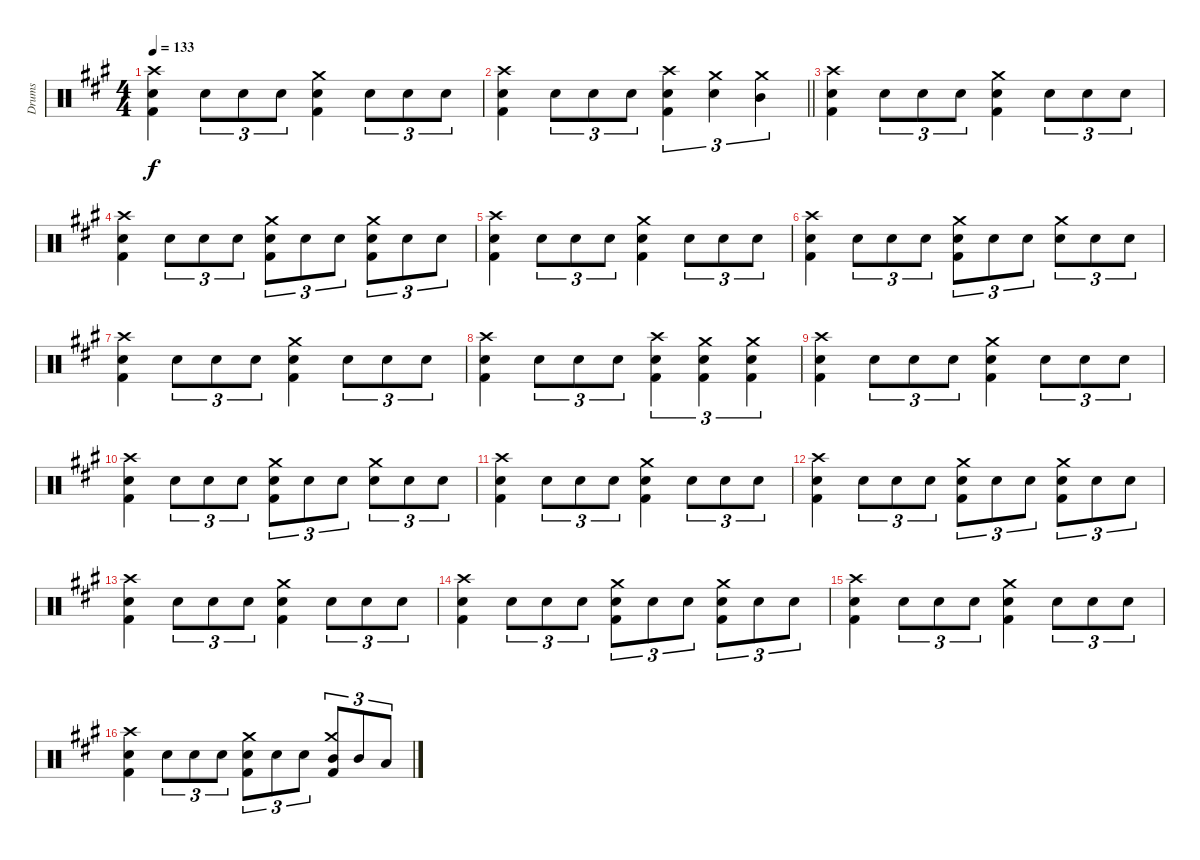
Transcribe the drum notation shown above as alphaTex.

\track ("Drums" "Drums") {instrument percussion}
\staff {score}
\articulation defaults
\ts (4 4)
\tempo 133
\clef neutral
\ks a
("Crash high (hit)" "Snare (hit) 2" "Kick (hit) 2").4{dy f} "Snare (hit) 2".8{tu (3 2)} "Snare (hit) 2".8{tu (3 2)} "Snare (hit) 2".8{tu (3 2)} ("Crash medium (hit)" "Snare (hit) 2" "Kick (hit) 2").4 "Snare (hit) 2".8{tu (3 2)} "Snare (hit) 2".8{tu (3 2)} "Snare (hit) 2".8{tu (3 2)} |
\barLineRight lightlight
("Crash high (hit)" "Snare (hit) 2" "Kick (hit) 2").4 "Snare (hit) 2".8{tu (3 2)} "Snare (hit) 2".8{tu (3 2)} "Snare (hit) 2".8{tu (3 2)} ("Crash high (hit)" "Snare (hit) 2" "Kick (hit) 2").4{tu (3 2)} ("Crash medium (hit)" "Snare (hit) 2").4{tu (3 2)} ("Crash medium (hit)" "Mid Tom (hit)").4{tu (3 2)} |
("Crash high (hit)" "Snare (hit) 2" "Kick (hit) 2").4 "Snare (hit) 2".8{tu (3 2)} "Snare (hit) 2".8{tu (3 2)} "Snare (hit) 2".8{tu (3 2)} ("Crash medium (hit)" "Snare (hit) 2" "Kick (hit) 2").4 "Snare (hit) 2".8{tu (3 2)} "Snare (hit) 2".8{tu (3 2)} "Snare (hit) 2".8{tu (3 2)} |
("Crash high (hit)" "Snare (hit) 2" "Kick (hit) 2").4 "Snare (hit) 2".8{tu (3 2)} "Snare (hit) 2".8{tu (3 2)} "Snare (hit) 2".8{tu (3 2)} ("Crash medium (hit)" "Snare (hit) 2" "Kick (hit) 2").8{tu (3 2)} "Snare (hit) 2".8{tu (3 2)} "Snare (hit) 2".8{tu (3 2)} ("Crash medium (hit)" "Snare (hit) 2" "Kick (hit) 2").8{tu (3 2)} "Snare (hit) 2".8{tu (3 2)} "Snare (hit) 2".8{tu (3 2)} |
("Crash high (hit)" "Snare (hit) 2" "Kick (hit) 2").4 "Snare (hit) 2".8{tu (3 2)} "Snare (hit) 2".8{tu (3 2)} "Snare (hit) 2".8{tu (3 2)} ("Crash medium (hit)" "Snare (hit) 2" "Kick (hit) 2").4 "Snare (hit) 2".8{tu (3 2)} "Snare (hit) 2".8{tu (3 2)} "Snare (hit) 2".8{tu (3 2)} |
("Crash high (hit)" "Snare (hit) 2" "Kick (hit) 2").4 "Snare (hit) 2".8{tu (3 2)} "Snare (hit) 2".8{tu (3 2)} "Snare (hit) 2".8{tu (3 2)} ("Crash medium (hit)" "Snare (hit) 2" "Kick (hit) 2").8{tu (3 2)} "Snare (hit) 2".8{tu (3 2)} "Snare (hit) 2".8{tu (3 2)} ("Crash medium (hit)" "Snare (hit) 2").8{tu (3 2)} "Snare (hit) 2".8{tu (3 2)} "Snare (hit) 2".8{tu (3 2)} |
("Crash high (hit)" "Snare (hit) 2" "Kick (hit) 2").4 "Snare (hit) 2".8{tu (3 2)} "Snare (hit) 2".8{tu (3 2)} "Snare (hit) 2".8{tu (3 2)} ("Crash medium (hit)" "Snare (hit) 2" "Kick (hit) 2").4 "Snare (hit) 2".8{tu (3 2)} "Snare (hit) 2".8{tu (3 2)} "Snare (hit) 2".8{tu (3 2)} |
("Crash high (hit)" "Snare (hit) 2" "Kick (hit) 2").4 "Snare (hit) 2".8{tu (3 2)} "Snare (hit) 2".8{tu (3 2)} "Snare (hit) 2".8{tu (3 2)} ("Crash high (hit)" "Snare (hit) 2" "Kick (hit) 2").4{tu (3 2)} ("Crash medium (hit)" "Snare (hit) 2" "Kick (hit) 2").4{tu (3 2)} ("Crash medium (hit)" "Snare (hit) 2" "Kick (hit) 2").4{tu (3 2)} |
("Crash high (hit)" "Snare (hit) 2" "Kick (hit) 2").4 "Snare (hit) 2".8{tu (3 2)} "Snare (hit) 2".8{tu (3 2)} "Snare (hit) 2".8{tu (3 2)} ("Crash medium (hit)" "Snare (hit) 2" "Kick (hit) 2").4 "Snare (hit) 2".8{tu (3 2)} "Snare (hit) 2".8{tu (3 2)} "Snare (hit) 2".8{tu (3 2)} |
("Crash high (hit)" "Snare (hit) 2" "Kick (hit) 2").4 "Snare (hit) 2".8{tu (3 2)} "Snare (hit) 2".8{tu (3 2)} "Snare (hit) 2".8{tu (3 2)} ("Crash medium (hit)" "Snare (hit) 2" "Kick (hit) 2").8{tu (3 2)} "Snare (hit) 2".8{tu (3 2)} "Snare (hit) 2".8{tu (3 2)} ("Crash medium (hit)" "Snare (hit) 2").8{tu (3 2)} "Snare (hit) 2".8{tu (3 2)} "Snare (hit) 2".8{tu (3 2)} |
("Crash high (hit)" "Snare (hit) 2" "Kick (hit) 2").4 "Snare (hit) 2".8{tu (3 2)} "Snare (hit) 2".8{tu (3 2)} "Snare (hit) 2".8{tu (3 2)} ("Crash medium (hit)" "Snare (hit) 2" "Kick (hit) 2").4 "Snare (hit) 2".8{tu (3 2)} "Snare (hit) 2".8{tu (3 2)} "Snare (hit) 2".8{tu (3 2)} |
("Crash high (hit)" "Snare (hit) 2" "Kick (hit) 2").4 "Snare (hit) 2".8{tu (3 2)} "Snare (hit) 2".8{tu (3 2)} "Snare (hit) 2".8{tu (3 2)} ("Crash medium (hit)" "Snare (hit) 2" "Kick (hit) 2").8{tu (3 2)} "Snare (hit) 2".8{tu (3 2)} "Snare (hit) 2".8{tu (3 2)} ("Crash medium (hit)" "Snare (hit) 2" "Kick (hit) 2").8{tu (3 2)} "Snare (hit) 2".8{tu (3 2)} "Snare (hit) 2".8{tu (3 2)} |
("Crash high (hit)" "Snare (hit) 2" "Kick (hit) 2").4 "Snare (hit) 2".8{tu (3 2)} "Snare (hit) 2".8{tu (3 2)} "Snare (hit) 2".8{tu (3 2)} ("Crash medium (hit)" "Snare (hit) 2" "Kick (hit) 2").4 "Snare (hit) 2".8{tu (3 2)} "Snare (hit) 2".8{tu (3 2)} "Snare (hit) 2".8{tu (3 2)} |
("Crash high (hit)" "Snare (hit) 2" "Kick (hit) 2").4 "Snare (hit) 2".8{tu (3 2)} "Snare (hit) 2".8{tu (3 2)} "Snare (hit) 2".8{tu (3 2)} ("Crash medium (hit)" "Snare (hit) 2" "Kick (hit) 2").8{tu (3 2)} "Snare (hit) 2".8{tu (3 2)} "Snare (hit) 2".8{tu (3 2)} ("Crash medium (hit)" "Snare (hit) 2" "Kick (hit) 2").8{tu (3 2)} "Snare (hit) 2".8{tu (3 2)} "Snare (hit) 2".8{tu (3 2)} |
("Crash high (hit)" "Snare (hit) 2" "Kick (hit) 2").4 "Snare (hit) 2".8{tu (3 2)} "Snare (hit) 2".8{tu (3 2)} "Snare (hit) 2".8{tu (3 2)} ("Crash medium (hit)" "Snare (hit) 2" "Kick (hit) 2").4 "Snare (hit) 2".8{tu (3 2)} "Snare (hit) 2".8{tu (3 2)} "Snare (hit) 2".8{tu (3 2)} |
("Crash high (hit)" "Snare (hit) 2" "Kick (hit) 2").4 "Snare (hit) 2".8{tu (3 2)} "Snare (hit) 2".8{tu (3 2)} "Snare (hit) 2".8{tu (3 2)} ("Crash medium (hit)" "Snare (hit) 2" "Kick (hit) 2").8{tu (3 2)} "Snare (hit) 2".8{tu (3 2)} "Snare (hit) 2".8{tu (3 2)} ("Crash medium (hit)" "Mid Tom (hit)" "Kick (hit) 2").8{tu (3 2)} "Mid Tom (hit)".8{tu (3 2)} "Low Tom (hit)".8{tu (3 2)}
